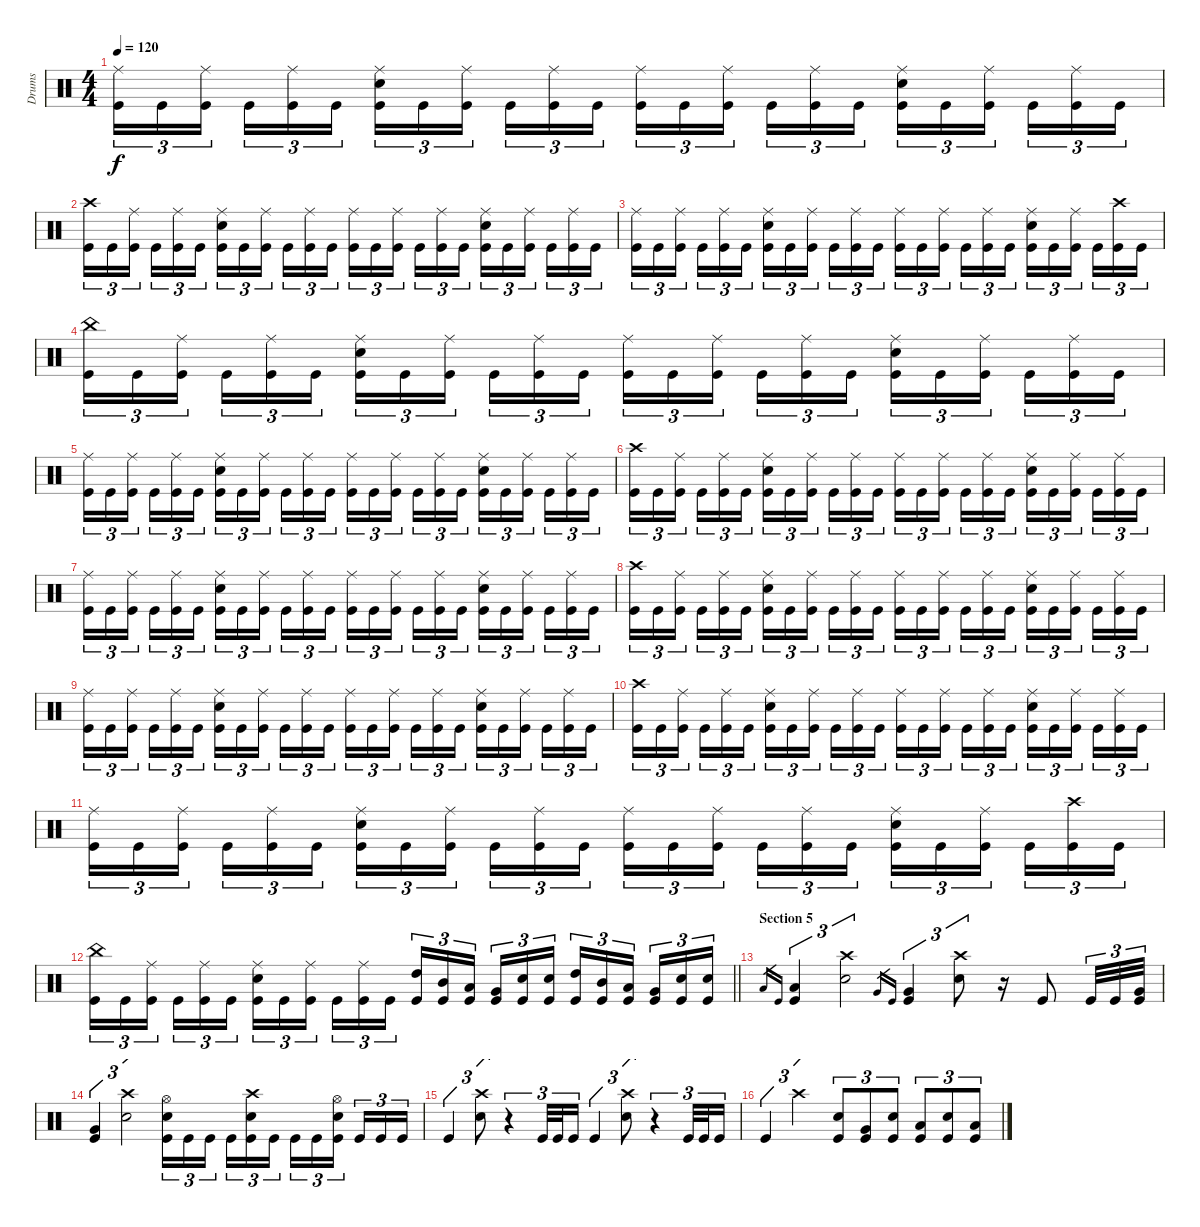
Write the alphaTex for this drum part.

\track ("Drums" "Drums") {instrument percussion}
\staff {score}
\articulation defaults
\ts (4 4)
\tempo 120
\clef neutral
\ks c
("Ride (middle)" "Kick (hit)").16{tu (3 2) dy f} "Kick (hit)".16{tu (3 2)} ("Ride (middle)" "Kick (hit)").16{tu (3 2) beam splitsecondary} "Kick (hit)".16{tu (3 2)} ("Ride (middle)" "Kick (hit)").16{tu (3 2)} "Kick (hit)".16{tu (3 2)} ("Ride (middle)" "Snare (hit) 2" "Kick (hit)").16{tu (3 2)} "Kick (hit)".16{tu (3 2)} ("Ride (middle)" "Kick (hit)").16{tu (3 2) beam splitsecondary} "Kick (hit)".16{tu (3 2)} ("Ride (middle)" "Kick (hit)").16{tu (3 2)} "Kick (hit)".16{tu (3 2)} ("Ride (middle)" "Kick (hit)").16{tu (3 2)} "Kick (hit)".16{tu (3 2)} ("Ride (middle)" "Kick (hit)").16{tu (3 2) beam splitsecondary} "Kick (hit)".16{tu (3 2)} ("Ride (middle)" "Kick (hit)").16{tu (3 2)} "Kick (hit)".16{tu (3 2)} ("Ride (middle)" "Snare (hit) 2" "Kick (hit)").16{tu (3 2)} "Kick (hit)".16{tu (3 2)} ("Ride (middle)" "Kick (hit)").16{tu (3 2) beam splitsecondary} "Kick (hit)".16{tu (3 2)} ("Ride (middle)" "Kick (hit)").16{tu (3 2)} "Kick (hit)".16{tu (3 2)} |
("Crash high (hit)" "Kick (hit)").16{tu (3 2)} "Kick (hit)".16{tu (3 2)} ("Ride (middle)" "Kick (hit)").16{tu (3 2) beam splitsecondary} "Kick (hit)".16{tu (3 2)} ("Ride (middle)" "Kick (hit)").16{tu (3 2)} "Kick (hit)".16{tu (3 2)} ("Ride (middle)" "Snare (hit) 2" "Kick (hit)").16{tu (3 2)} "Kick (hit)".16{tu (3 2)} ("Ride (middle)" "Kick (hit)").16{tu (3 2) beam splitsecondary} "Kick (hit)".16{tu (3 2)} ("Ride (middle)" "Kick (hit)").16{tu (3 2)} "Kick (hit)".16{tu (3 2)} ("Ride (middle)" "Kick (hit)").16{tu (3 2)} "Kick (hit)".16{tu (3 2)} ("Ride (middle)" "Kick (hit)").16{tu (3 2) beam splitsecondary} "Kick (hit)".16{tu (3 2)} ("Ride (middle)" "Kick (hit)").16{tu (3 2)} "Kick (hit)".16{tu (3 2)} ("Ride (middle)" "Snare (hit) 2" "Kick (hit)").16{tu (3 2)} "Kick (hit)".16{tu (3 2)} ("Ride (middle)" "Kick (hit)").16{tu (3 2) beam splitsecondary} "Kick (hit)".16{tu (3 2)} ("Ride (middle)" "Kick (hit)").16{tu (3 2)} "Kick (hit)".16{tu (3 2)} |
("Ride (middle)" "Kick (hit)").16{tu (3 2)} "Kick (hit)".16{tu (3 2)} ("Ride (middle)" "Kick (hit)").16{tu (3 2) beam splitsecondary} "Kick (hit)".16{tu (3 2)} ("Ride (middle)" "Kick (hit)").16{tu (3 2)} "Kick (hit)".16{tu (3 2)} ("Ride (middle)" "Snare (hit) 2" "Kick (hit)").16{tu (3 2)} "Kick (hit)".16{tu (3 2)} ("Ride (middle)" "Kick (hit)").16{tu (3 2) beam splitsecondary} "Kick (hit)".16{tu (3 2)} ("Ride (middle)" "Kick (hit)").16{tu (3 2)} "Kick (hit)".16{tu (3 2)} ("Ride (middle)" "Kick (hit)").16{tu (3 2)} "Kick (hit)".16{tu (3 2)} ("Ride (middle)" "Kick (hit)").16{tu (3 2) beam splitsecondary} "Kick (hit)".16{tu (3 2)} ("Ride (middle)" "Kick (hit)").16{tu (3 2)} "Kick (hit)".16{tu (3 2)} ("Ride (middle)" "Snare (hit) 2" "Kick (hit)").16{tu (3 2)} "Kick (hit)".16{tu (3 2)} ("Ride (middle)" "Kick (hit)").16{tu (3 2) beam splitsecondary} "Kick (hit)".16{tu (3 2)} ("Crash high (hit)" "Kick (hit)").16{tu (3 2)} "Kick (hit)".16{tu (3 2)} |
("China (hit)" "Kick (hit)").16{tu (3 2)} "Kick (hit)".16{tu (3 2)} ("Ride (middle)" "Kick (hit)").16{tu (3 2) beam splitsecondary} "Kick (hit)".16{tu (3 2)} ("Ride (middle)" "Kick (hit)").16{tu (3 2)} "Kick (hit)".16{tu (3 2)} ("Ride (middle)" "Snare (hit) 2" "Kick (hit)").16{tu (3 2)} "Kick (hit)".16{tu (3 2)} ("Ride (middle)" "Kick (hit)").16{tu (3 2) beam splitsecondary} "Kick (hit)".16{tu (3 2)} ("Ride (middle)" "Kick (hit)").16{tu (3 2)} "Kick (hit)".16{tu (3 2)} ("Ride (middle)" "Kick (hit)").16{tu (3 2)} "Kick (hit)".16{tu (3 2)} ("Ride (middle)" "Kick (hit)").16{tu (3 2) beam splitsecondary} "Kick (hit)".16{tu (3 2)} ("Ride (middle)" "Kick (hit)").16{tu (3 2)} "Kick (hit)".16{tu (3 2)} ("Ride (middle)" "Snare (hit) 2" "Kick (hit)").16{tu (3 2)} "Kick (hit)".16{tu (3 2)} ("Ride (middle)" "Kick (hit)").16{tu (3 2) beam splitsecondary} "Kick (hit)".16{tu (3 2)} ("Ride (middle)" "Kick (hit)").16{tu (3 2)} "Kick (hit)".16{tu (3 2)} |
("Ride (middle)" "Kick (hit)").16{tu (3 2)} "Kick (hit)".16{tu (3 2)} ("Ride (middle)" "Kick (hit)").16{tu (3 2) beam splitsecondary} "Kick (hit)".16{tu (3 2)} ("Ride (middle)" "Kick (hit)").16{tu (3 2)} "Kick (hit)".16{tu (3 2)} ("Ride (middle)" "Snare (hit) 2" "Kick (hit)").16{tu (3 2)} "Kick (hit)".16{tu (3 2)} ("Ride (middle)" "Kick (hit)").16{tu (3 2) beam splitsecondary} "Kick (hit)".16{tu (3 2)} ("Ride (middle)" "Kick (hit)").16{tu (3 2)} "Kick (hit)".16{tu (3 2)} ("Ride (middle)" "Kick (hit)").16{tu (3 2)} "Kick (hit)".16{tu (3 2)} ("Ride (middle)" "Kick (hit)").16{tu (3 2) beam splitsecondary} "Kick (hit)".16{tu (3 2)} ("Ride (middle)" "Kick (hit)").16{tu (3 2)} "Kick (hit)".16{tu (3 2)} ("Ride (middle)" "Snare (hit) 2" "Kick (hit)").16{tu (3 2)} "Kick (hit)".16{tu (3 2)} ("Ride (middle)" "Kick (hit)").16{tu (3 2) beam splitsecondary} "Kick (hit)".16{tu (3 2)} ("Ride (middle)" "Kick (hit)").16{tu (3 2)} "Kick (hit)".16{tu (3 2)} |
("Crash high (hit)" "Kick (hit)").16{tu (3 2)} "Kick (hit)".16{tu (3 2)} ("Ride (middle)" "Kick (hit)").16{tu (3 2) beam splitsecondary} "Kick (hit)".16{tu (3 2)} ("Ride (middle)" "Kick (hit)").16{tu (3 2)} "Kick (hit)".16{tu (3 2)} ("Ride (middle)" "Snare (hit) 2" "Kick (hit)").16{tu (3 2)} "Kick (hit)".16{tu (3 2)} ("Ride (middle)" "Kick (hit)").16{tu (3 2) beam splitsecondary} "Kick (hit)".16{tu (3 2)} ("Ride (middle)" "Kick (hit)").16{tu (3 2)} "Kick (hit)".16{tu (3 2)} ("Ride (middle)" "Kick (hit)").16{tu (3 2)} "Kick (hit)".16{tu (3 2)} ("Ride (middle)" "Kick (hit)").16{tu (3 2) beam splitsecondary} "Kick (hit)".16{tu (3 2)} ("Ride (middle)" "Kick (hit)").16{tu (3 2)} "Kick (hit)".16{tu (3 2)} ("Ride (middle)" "Snare (hit) 2" "Kick (hit)").16{tu (3 2)} "Kick (hit)".16{tu (3 2)} ("Ride (middle)" "Kick (hit)").16{tu (3 2) beam splitsecondary} "Kick (hit)".16{tu (3 2)} ("Ride (middle)" "Kick (hit)").16{tu (3 2)} "Kick (hit)".16{tu (3 2)} |
("Ride (middle)" "Kick (hit)").16{tu (3 2)} "Kick (hit)".16{tu (3 2)} ("Ride (middle)" "Kick (hit)").16{tu (3 2) beam splitsecondary} "Kick (hit)".16{tu (3 2)} ("Ride (middle)" "Kick (hit)").16{tu (3 2)} "Kick (hit)".16{tu (3 2)} ("Ride (middle)" "Snare (hit) 2" "Kick (hit)").16{tu (3 2)} "Kick (hit)".16{tu (3 2)} ("Ride (middle)" "Kick (hit)").16{tu (3 2) beam splitsecondary} "Kick (hit)".16{tu (3 2)} ("Ride (middle)" "Kick (hit)").16{tu (3 2)} "Kick (hit)".16{tu (3 2)} ("Ride (middle)" "Kick (hit)").16{tu (3 2)} "Kick (hit)".16{tu (3 2)} ("Ride (middle)" "Kick (hit)").16{tu (3 2) beam splitsecondary} "Kick (hit)".16{tu (3 2)} ("Ride (middle)" "Kick (hit)").16{tu (3 2)} "Kick (hit)".16{tu (3 2)} ("Ride (middle)" "Snare (hit) 2" "Kick (hit)").16{tu (3 2)} "Kick (hit)".16{tu (3 2)} ("Ride (middle)" "Kick (hit)").16{tu (3 2) beam splitsecondary} "Kick (hit)".16{tu (3 2)} ("Ride (middle)" "Kick (hit)").16{tu (3 2)} "Kick (hit)".16{tu (3 2)} |
("Crash high (hit)" "Kick (hit)").16{tu (3 2)} "Kick (hit)".16{tu (3 2)} ("Ride (middle)" "Kick (hit)").16{tu (3 2) beam splitsecondary} "Kick (hit)".16{tu (3 2)} ("Ride (middle)" "Kick (hit)").16{tu (3 2)} "Kick (hit)".16{tu (3 2)} ("Ride (middle)" "Snare (hit) 2" "Kick (hit)").16{tu (3 2)} "Kick (hit)".16{tu (3 2)} ("Ride (middle)" "Kick (hit)").16{tu (3 2) beam splitsecondary} "Kick (hit)".16{tu (3 2)} ("Ride (middle)" "Kick (hit)").16{tu (3 2)} "Kick (hit)".16{tu (3 2)} ("Ride (middle)" "Kick (hit)").16{tu (3 2)} "Kick (hit)".16{tu (3 2)} ("Ride (middle)" "Kick (hit)").16{tu (3 2) beam splitsecondary} "Kick (hit)".16{tu (3 2)} ("Ride (middle)" "Kick (hit)").16{tu (3 2)} "Kick (hit)".16{tu (3 2)} ("Ride (middle)" "Snare (hit) 2" "Kick (hit)").16{tu (3 2)} "Kick (hit)".16{tu (3 2)} ("Ride (middle)" "Kick (hit)").16{tu (3 2) beam splitsecondary} "Kick (hit)".16{tu (3 2)} ("Ride (middle)" "Kick (hit)").16{tu (3 2)} "Kick (hit)".16{tu (3 2)} |
("Ride (middle)" "Kick (hit)").16{tu (3 2)} "Kick (hit)".16{tu (3 2)} ("Ride (middle)" "Kick (hit)").16{tu (3 2) beam splitsecondary} "Kick (hit)".16{tu (3 2)} ("Ride (middle)" "Kick (hit)").16{tu (3 2)} "Kick (hit)".16{tu (3 2)} ("Ride (middle)" "Snare (hit) 2" "Kick (hit)").16{tu (3 2)} "Kick (hit)".16{tu (3 2)} ("Ride (middle)" "Kick (hit)").16{tu (3 2) beam splitsecondary} "Kick (hit)".16{tu (3 2)} ("Ride (middle)" "Kick (hit)").16{tu (3 2)} "Kick (hit)".16{tu (3 2)} ("Ride (middle)" "Kick (hit)").16{tu (3 2)} "Kick (hit)".16{tu (3 2)} ("Ride (middle)" "Kick (hit)").16{tu (3 2) beam splitsecondary} "Kick (hit)".16{tu (3 2)} ("Ride (middle)" "Kick (hit)").16{tu (3 2)} "Kick (hit)".16{tu (3 2)} ("Ride (middle)" "Snare (hit) 2" "Kick (hit)").16{tu (3 2)} "Kick (hit)".16{tu (3 2)} ("Ride (middle)" "Kick (hit)").16{tu (3 2) beam splitsecondary} "Kick (hit)".16{tu (3 2)} ("Ride (middle)" "Kick (hit)").16{tu (3 2)} "Kick (hit)".16{tu (3 2)} |
("Crash high (hit)" "Kick (hit)").16{tu (3 2)} "Kick (hit)".16{tu (3 2)} ("Ride (middle)" "Kick (hit)").16{tu (3 2) beam splitsecondary} "Kick (hit)".16{tu (3 2)} ("Ride (middle)" "Kick (hit)").16{tu (3 2)} "Kick (hit)".16{tu (3 2)} ("Ride (middle)" "Snare (hit) 2" "Kick (hit)").16{tu (3 2)} "Kick (hit)".16{tu (3 2)} ("Ride (middle)" "Kick (hit)").16{tu (3 2) beam splitsecondary} "Kick (hit)".16{tu (3 2)} ("Ride (middle)" "Kick (hit)").16{tu (3 2)} "Kick (hit)".16{tu (3 2)} ("Ride (middle)" "Kick (hit)").16{tu (3 2)} "Kick (hit)".16{tu (3 2)} ("Ride (middle)" "Kick (hit)").16{tu (3 2) beam splitsecondary} "Kick (hit)".16{tu (3 2)} ("Ride (middle)" "Kick (hit)").16{tu (3 2)} "Kick (hit)".16{tu (3 2)} ("Ride (middle)" "Snare (hit) 2" "Kick (hit)").16{tu (3 2)} "Kick (hit)".16{tu (3 2)} ("Ride (middle)" "Kick (hit)").16{tu (3 2) beam splitsecondary} "Kick (hit)".16{tu (3 2)} ("Ride (middle)" "Kick (hit)").16{tu (3 2)} "Kick (hit)".16{tu (3 2)} |
("Ride (middle)" "Kick (hit)").16{tu (3 2)} "Kick (hit)".16{tu (3 2)} ("Ride (middle)" "Kick (hit)").16{tu (3 2) beam splitsecondary} "Kick (hit)".16{tu (3 2)} ("Ride (middle)" "Kick (hit)").16{tu (3 2)} "Kick (hit)".16{tu (3 2)} ("Ride (middle)" "Snare (hit) 2" "Kick (hit)").16{tu (3 2)} "Kick (hit)".16{tu (3 2)} ("Ride (middle)" "Kick (hit)").16{tu (3 2) beam splitsecondary} "Kick (hit)".16{tu (3 2)} ("Ride (middle)" "Kick (hit)").16{tu (3 2)} "Kick (hit)".16{tu (3 2)} ("Ride (middle)" "Kick (hit)").16{tu (3 2)} "Kick (hit)".16{tu (3 2)} ("Ride (middle)" "Kick (hit)").16{tu (3 2) beam splitsecondary} "Kick (hit)".16{tu (3 2)} ("Ride (middle)" "Kick (hit)").16{tu (3 2)} "Kick (hit)".16{tu (3 2)} ("Ride (middle)" "Snare (hit) 2" "Kick (hit)").16{tu (3 2)} "Kick (hit)".16{tu (3 2)} ("Ride (middle)" "Kick (hit)").16{tu (3 2) beam splitsecondary} "Kick (hit)".16{tu (3 2)} ("Crash high (hit)" "Kick (hit)").16{tu (3 2)} "Kick (hit)".16{tu (3 2)} |
\barLineRight lightlight
("China (hit)" "Kick (hit)").16{tu (3 2)} "Kick (hit)".16{tu (3 2)} ("Ride (middle)" "Kick (hit)").16{tu (3 2) beam splitsecondary} "Kick (hit)".16{tu (3 2)} ("Ride (middle)" "Kick (hit)").16{tu (3 2)} "Kick (hit)".16{tu (3 2)} ("Ride (middle)" "Snare (hit) 2" "Kick (hit)").16{tu (3 2)} "Kick (hit)".16{tu (3 2)} ("Ride (middle)" "Kick (hit)").16{tu (3 2) beam splitsecondary} "Kick (hit)".16{tu (3 2)} ("Ride (middle)" "Kick (hit)").16{tu (3 2)} "Kick (hit)".16{tu (3 2)} ("High Tom (hit)" "Kick (hit)").16{tu (3 2)} ("Mid Tom (hit)" "Kick (hit)").16{tu (3 2)} ("Low Tom (hit)" "Kick (hit)").16{tu (3 2) beam splitsecondary} ("Very Low Tom (hit)" "Kick (hit)").16{tu (3 2)} ("Snare (hit) 2" "Kick (hit)").16{tu (3 2)} ("Snare (hit) 2" "Kick (hit)").16{tu (3 2)} ("High Tom (hit)" "Kick (hit)").16{tu (3 2)} ("Mid Tom (hit)" "Kick (hit)").16{tu (3 2)} ("Low Tom (hit)" "Kick (hit)").16{tu (3 2) beam splitsecondary} ("Very Low Tom (hit)" "Kick (hit)").16{tu (3 2)} ("Snare (hit) 2" "Kick (hit)").16{tu (3 2)} ("Snare (hit) 2" "Kick (hit)").16{tu (3 2)} |
\section ("" "Section 5")
"Low Floor Tom (hit)".16{gr} "Kick (hit)".16{gr} ("Low Floor Tom (hit)" "Kick (hit)").4{tu (3 2)} ("Crash high (hit)" "Snare (hit) 2").2{tu (3 2)} "Very Low Tom (hit)".16{gr} "Kick (hit)".16{gr} ("Very Low Tom (hit)" "Kick (hit)").4{tu (3 2)} ("Crash high (hit)" "Snare (hit) 2").8{tu (3 2)} r.16 "Kick (hit)".8 "Kick (hit)".32{tu (3 2)} "Kick (hit)".32{tu (3 2)} ("Very Low Tom (hit)" "Kick (hit)").32{tu (3 2)} |
("Very Low Tom (hit)" "Kick (hit)").4{tu (3 2)} ("Crash high (hit)" "Snare (hit) 2").2{tu (3 2)} ("Hi-Hat (open)" "Snare (hit) 2" "Kick (hit)").16{tu (3 2)} "Kick (hit)".16{tu (3 2)} "Kick (hit)".16{tu (3 2) beam splitsecondary} "Kick (hit)".16{tu (3 2)} ("Crash high (hit)" "Snare (hit) 2" "Kick (hit)").16{tu (3 2)} "Kick (hit)".16{tu (3 2)} "Kick (hit)".16{tu (3 2)} "Kick (hit)".16{tu (3 2)} ("Hi-Hat (open)" "Snare (hit) 2" "Kick (hit)").16{tu (3 2) beam splitsecondary} "Kick (hit)".16{tu (3 2)} "Kick (hit)".16{tu (3 2)} "Kick (hit)".16{tu (3 2)} |
"Kick (hit)".4{tu (3 2)} ("Crash high (hit)" "Snare (hit) 2").8{tu (3 2)} r.4{tu (3 2)} "Kick (hit)".32{tu (3 2)} "Kick (hit)".32{tu (3 2)} "Kick (hit)".16{tu (3 2)} "Kick (hit)".4{tu (3 2)} ("Crash high (hit)" "Snare (hit) 2").8{tu (3 2)} r.4{tu (3 2)} "Kick (hit)".32{tu (3 2)} "Kick (hit)".32{tu (3 2)} "Kick (hit)".16{tu (3 2)} |
"Kick (hit)".4{tu (3 2)} "Crash high (hit)".2{tu (3 2)} ("Snare (hit) 2" "Kick (hit)").8{tu (3 2)} ("Very Low Tom (hit)" "Kick (hit)").8{tu (3 2)} ("Snare (hit) 2" "Kick (hit)").8{tu (3 2)} ("Low Tom (hit)" "Kick (hit)").8{tu (3 2)} ("Snare (hit) 2" "Kick (hit)").8{tu (3 2)} ("Low Floor Tom (hit)" "Kick (hit)").8{tu (3 2)}
